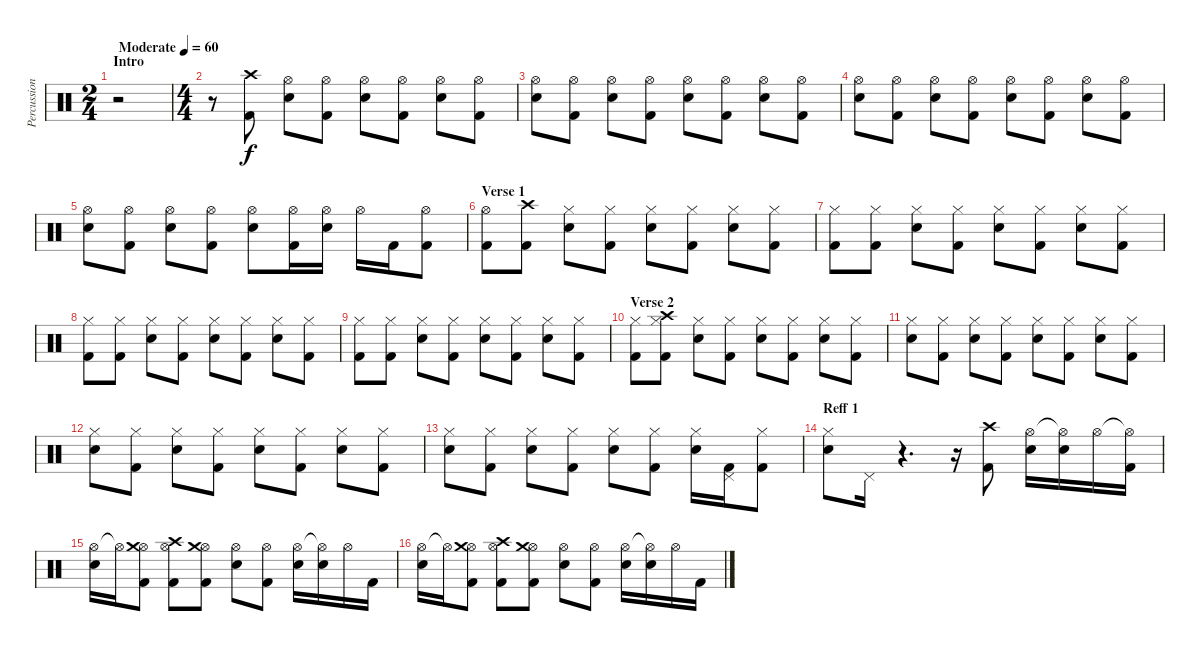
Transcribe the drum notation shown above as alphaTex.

\track ("Percussion 1" "Percussion") {instrument percussion}
\staff {score}
\articulation defaults
\ts (2 4)
\section ("" "Intro")
\tempo (60 "Moderate")
\clef neutral
\ks c
r.2{dy f} |
\ts (4 4)
r.8 ("Crash high (hit)" "Kick (hit) 2").8 ("Hi-Hat (open)" "Electric Snare (hit)").8 ("Hi-Hat (open)" "Kick (hit) 2").8 ("Hi-Hat (open)" "Electric Snare (hit)").8 ("Hi-Hat (open)" "Kick (hit) 2").8 ("Hi-Hat (open)" "Electric Snare (hit)").8 ("Hi-Hat (open)" "Kick (hit) 2").8 |
("Hi-Hat (open)" "Electric Snare (hit)").8 ("Hi-Hat (open)" "Kick (hit) 2").8 ("Hi-Hat (open)" "Electric Snare (hit)").8 ("Hi-Hat (open)" "Kick (hit) 2").8 ("Hi-Hat (open)" "Electric Snare (hit)").8 ("Hi-Hat (open)" "Kick (hit) 2").8 ("Hi-Hat (open)" "Electric Snare (hit)").8 ("Hi-Hat (open)" "Kick (hit) 2").8 |
("Hi-Hat (open)" "Electric Snare (hit)").8 ("Hi-Hat (open)" "Kick (hit) 2").8 ("Hi-Hat (open)" "Electric Snare (hit)").8 ("Hi-Hat (open)" "Kick (hit) 2").8 ("Hi-Hat (open)" "Electric Snare (hit)").8 ("Hi-Hat (open)" "Kick (hit) 2").8 ("Hi-Hat (open)" "Electric Snare (hit)").8 ("Hi-Hat (open)" "Kick (hit) 2").8 |
("Hi-Hat (open)" "Electric Snare (hit)").8 ("Hi-Hat (open)" "Kick (hit) 2").8 ("Hi-Hat (open)" "Electric Snare (hit)").8 ("Hi-Hat (open)" "Kick (hit) 2").8 ("Hi-Hat (open)" "Electric Snare (hit)").8 ("Hi-Hat (open)" "Kick (hit) 2").16 ("Hi-Hat (open)" "Electric Snare (hit)").16 "Hi-Hat (open)".16 "Kick (hit) 2".16 ("Hi-Hat (open)" "Kick (hit) 2").8 |
\section ("" "Verse 1")
("Hi-Hat (open)" "Kick (hit) 2").8 ("Crash high (hit)" "Kick (hit) 2").8 ("Hi-Hat (closed)" "Electric Snare (hit)").8 ("Hi-Hat (closed)" "Kick (hit) 2").8 ("Hi-Hat (closed)" "Electric Snare (hit)").8 ("Hi-Hat (closed)" "Kick (hit) 2").8 ("Hi-Hat (closed)" "Electric Snare (hit)").8 ("Hi-Hat (closed)" "Kick (hit) 2").8 |
("Hi-Hat (closed)" "Kick (hit) 2").8 ("Hi-Hat (closed)" "Kick (hit) 2").8 ("Hi-Hat (closed)" "Electric Snare (hit)").8 ("Hi-Hat (closed)" "Kick (hit) 2").8 ("Hi-Hat (closed)" "Electric Snare (hit)").8 ("Hi-Hat (closed)" "Kick (hit) 2").8 ("Hi-Hat (closed)" "Electric Snare (hit)").8 ("Hi-Hat (closed)" "Kick (hit) 2").8 |
("Hi-Hat (closed)" "Kick (hit) 2").8 ("Hi-Hat (closed)" "Kick (hit) 2").8 ("Hi-Hat (closed)" "Electric Snare (hit)").8 ("Hi-Hat (closed)" "Kick (hit) 2").8 ("Hi-Hat (closed)" "Electric Snare (hit)").8 ("Hi-Hat (closed)" "Kick (hit) 2").8 ("Hi-Hat (closed)" "Electric Snare (hit)").8 ("Hi-Hat (closed)" "Kick (hit) 2").8 |
("Hi-Hat (closed)" "Kick (hit) 2").8 ("Hi-Hat (closed)" "Kick (hit) 2").8 ("Hi-Hat (closed)" "Electric Snare (hit)").8 ("Hi-Hat (closed)" "Kick (hit) 2").8 ("Hi-Hat (closed)" "Electric Snare (hit)").8 ("Hi-Hat (closed)" "Kick (hit) 2").8 ("Hi-Hat (closed)" "Electric Snare (hit)").8 ("Hi-Hat (closed)" "Kick (hit) 2").8 |
\section ("" "Verse 2")
("Hi-Hat (closed)" "Kick (hit) 2").8 ("Hi-Hat (closed)" "Crash high (hit)" "Kick (hit) 2").8 ("Hi-Hat (closed)" "Electric Snare (hit)").8 ("Hi-Hat (closed)" "Kick (hit) 2").8 ("Hi-Hat (closed)" "Electric Snare (hit)").8 ("Hi-Hat (closed)" "Kick (hit) 2").8 ("Hi-Hat (closed)" "Electric Snare (hit)").8 ("Hi-Hat (closed)" "Kick (hit) 2").8 |
("Hi-Hat (closed)" "Electric Snare (hit)").8 ("Hi-Hat (closed)" "Kick (hit) 2").8 ("Hi-Hat (closed)" "Electric Snare (hit)").8 ("Hi-Hat (closed)" "Kick (hit) 2").8 ("Hi-Hat (closed)" "Electric Snare (hit)").8 ("Hi-Hat (closed)" "Kick (hit) 2").8 ("Hi-Hat (closed)" "Electric Snare (hit)").8 ("Hi-Hat (closed)" "Kick (hit) 2").8 |
("Hi-Hat (closed)" "Electric Snare (hit)").8 ("Hi-Hat (closed)" "Kick (hit) 2").8 ("Hi-Hat (closed)" "Electric Snare (hit)").8 ("Hi-Hat (closed)" "Kick (hit) 2").8 ("Hi-Hat (closed)" "Electric Snare (hit)").8 ("Hi-Hat (closed)" "Kick (hit) 2").8 ("Hi-Hat (closed)" "Electric Snare (hit)").8 ("Hi-Hat (closed)" "Kick (hit) 2").8 |
("Hi-Hat (closed)" "Electric Snare (hit)").8 ("Hi-Hat (closed)" "Kick (hit) 2").8 ("Hi-Hat (closed)" "Electric Snare (hit)").8 ("Hi-Hat (closed)" "Kick (hit) 2").8 ("Hi-Hat (closed)" "Electric Snare (hit)").8 ("Hi-Hat (closed)" "Kick (hit) 2").8 ("Hi-Hat (closed)" "Electric Snare (hit)").16 ("Pedal Hi-Hat (hit)" "Kick (hit) 2").16 ("Hi-Hat (closed)" "Kick (hit) 2").8 |
\section ("" "Reff 1")
("Hi-Hat (closed)" "Electric Snare (hit)").8 "Pedal Hi-Hat (hit)".16 r.4{d} r.16 ("Crash high (hit)" "Kick (hit) 2").8 ("Hi-Hat (open)" "Electric Snare (hit)").16 ("Hi-Hat (open)"{t} "Electric Snare (hit)").16 "Hi-Hat (open)".16 ("Hi-Hat (open)"{t} "Kick (hit) 2").16 |
("Hi-Hat (open)" "Electric Snare (hit)").16 "Hi-Hat (open)"{t}.16 ("Hi-Hat (open)" "Crash medium (hit)" "Kick (hit) 2").8 ("Hi-Hat (open)" "Crash high (hit)" "Kick (hit) 2").8 ("Hi-Hat (open)" "Crash medium (hit)" "Kick (hit) 2").8 ("Hi-Hat (open)" "Electric Snare (hit)").8 ("Hi-Hat (open)" "Kick (hit) 2").8 ("Hi-Hat (open)" "Electric Snare (hit)").16 ("Hi-Hat (open)"{t} "Electric Snare (hit)").16 "Hi-Hat (open)".16 "Kick (hit) 2".16 |
("Hi-Hat (open)" "Electric Snare (hit)").16 "Hi-Hat (open)"{t}.16 ("Hi-Hat (open)" "Crash medium (hit)" "Kick (hit) 2").8 ("Hi-Hat (open)" "Crash high (hit)" "Kick (hit) 2").8 ("Hi-Hat (open)" "Crash medium (hit)" "Kick (hit) 2").8 ("Hi-Hat (open)" "Electric Snare (hit)").8 ("Hi-Hat (open)" "Kick (hit) 2").8 ("Hi-Hat (open)" "Electric Snare (hit)").16 ("Hi-Hat (open)"{t} "Electric Snare (hit)").16 "Hi-Hat (open)".16 "Kick (hit) 2".16
